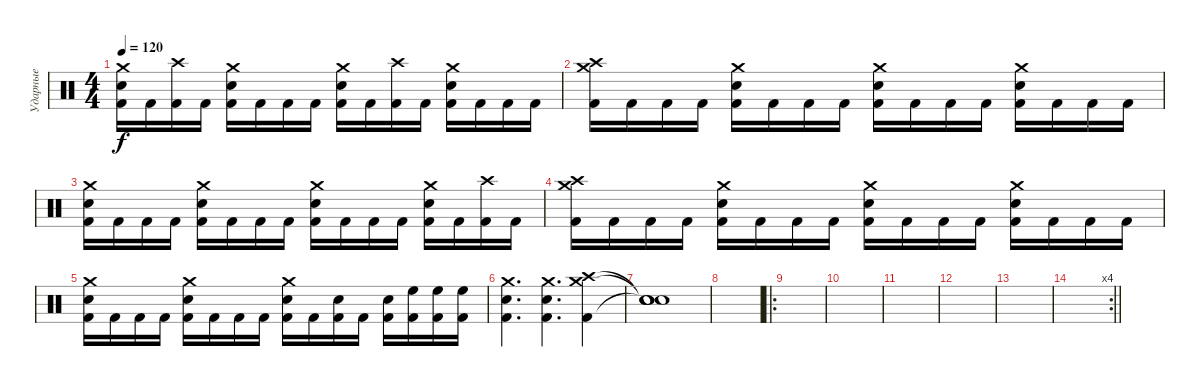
\track ("Ударные" "Ударные") {instrument percussion}
\staff {score}
\articulation defaults
\ts (4 4)
\tempo 120
\clef neutral
\ks c
("Crash medium (hit)" "Electric Snare (hit)" "Kick (hit) 2").16{dy f} "Kick (hit) 2".16 ("Crash high (hit)" "Kick (hit) 2").16 "Kick (hit) 2".16 ("Crash medium (hit)" "Electric Snare (hit)" "Kick (hit) 2").16 "Kick (hit) 2".16 "Kick (hit) 2".16 "Kick (hit) 2".16 ("Crash medium (hit)" "Electric Snare (hit)" "Kick (hit) 2").16 "Kick (hit) 2".16 ("Crash high (hit)" "Kick (hit) 2").16 "Kick (hit) 2".16 ("Crash medium (hit)" "Electric Snare (hit)" "Kick (hit) 2").16 "Kick (hit) 2".16 "Kick (hit) 2".16 "Kick (hit) 2".16 |
("Crash medium (hit)" "Crash high (hit)" "Kick (hit) 2").16 "Kick (hit) 2".16 "Kick (hit) 2".16 "Kick (hit) 2".16 ("Crash medium (hit)" "Electric Snare (hit)" "Kick (hit) 2").16 "Kick (hit) 2".16 "Kick (hit) 2".16 "Kick (hit) 2".16 ("Crash medium (hit)" "Electric Snare (hit)" "Kick (hit) 2").16 "Kick (hit) 2".16 "Kick (hit) 2".16 "Kick (hit) 2".16 ("Crash medium (hit)" "Electric Snare (hit)" "Kick (hit) 2").16 "Kick (hit) 2".16 "Kick (hit) 2".16 "Kick (hit) 2".16 |
("Crash medium (hit)" "Electric Snare (hit)" "Kick (hit) 2").16 "Kick (hit) 2".16 "Kick (hit) 2".16 "Kick (hit) 2".16 ("Crash medium (hit)" "Electric Snare (hit)" "Kick (hit) 2").16 "Kick (hit) 2".16 "Kick (hit) 2".16 "Kick (hit) 2".16 ("Crash medium (hit)" "Electric Snare (hit)" "Kick (hit) 2").16 "Kick (hit) 2".16 "Kick (hit) 2".16 "Kick (hit) 2".16 ("Crash medium (hit)" "Electric Snare (hit)" "Kick (hit) 2").16 "Kick (hit) 2".16 ("Crash high (hit)" "Kick (hit) 2").16 "Kick (hit) 2".16 |
("Crash medium (hit)" "Crash high (hit)" "Kick (hit) 2").16 "Kick (hit) 2".16 "Kick (hit) 2".16 "Kick (hit) 2".16 ("Crash medium (hit)" "Electric Snare (hit)" "Kick (hit) 2").16 "Kick (hit) 2".16 "Kick (hit) 2".16 "Kick (hit) 2".16 ("Crash medium (hit)" "Electric Snare (hit)" "Kick (hit) 2").16 "Kick (hit) 2".16 "Kick (hit) 2".16 "Kick (hit) 2".16 ("Crash medium (hit)" "Electric Snare (hit)" "Kick (hit) 2").16 "Kick (hit) 2".16 "Kick (hit) 2".16 "Kick (hit) 2".16 |
("Crash medium (hit)" "Electric Snare (hit)" "Kick (hit) 2").16 "Kick (hit) 2".16 "Kick (hit) 2".16 "Kick (hit) 2".16 ("Crash medium (hit)" "Electric Snare (hit)" "Kick (hit) 2").16 "Kick (hit) 2".16 "Kick (hit) 2".16 "Kick (hit) 2".16 ("Crash medium (hit)" "Electric Snare (hit)" "Kick (hit) 2").16 "Kick (hit) 2".16 ("Electric Snare (hit)" "Kick (hit) 2").16 "Kick (hit) 2".16 ("Electric Snare (hit)" "Kick (hit) 2").16 ("High Floor Tom (hit)" "Kick (hit) 2").16 ("High Floor Tom (hit)" "Kick (hit) 2").16 ("High Floor Tom (hit)" "Kick (hit) 2").16 |
("Electric Snare (hit)" "Crash medium (hit)" "Kick (hit) 2").4{d} ("Electric Snare (hit)" "Crash medium (hit)" "Kick (hit) 2").4{d} ("Crash high (hit)" "Crash medium (hit)" "Kick (hit) 2").4 |
("Snare (hit)"{t} "Snare (hit)"{t} "Snare (hit)"{t} "Snare (hit)").1 |
|
\ro
|
|
|
|
|
\rc 4
\barLineRight lightlight
